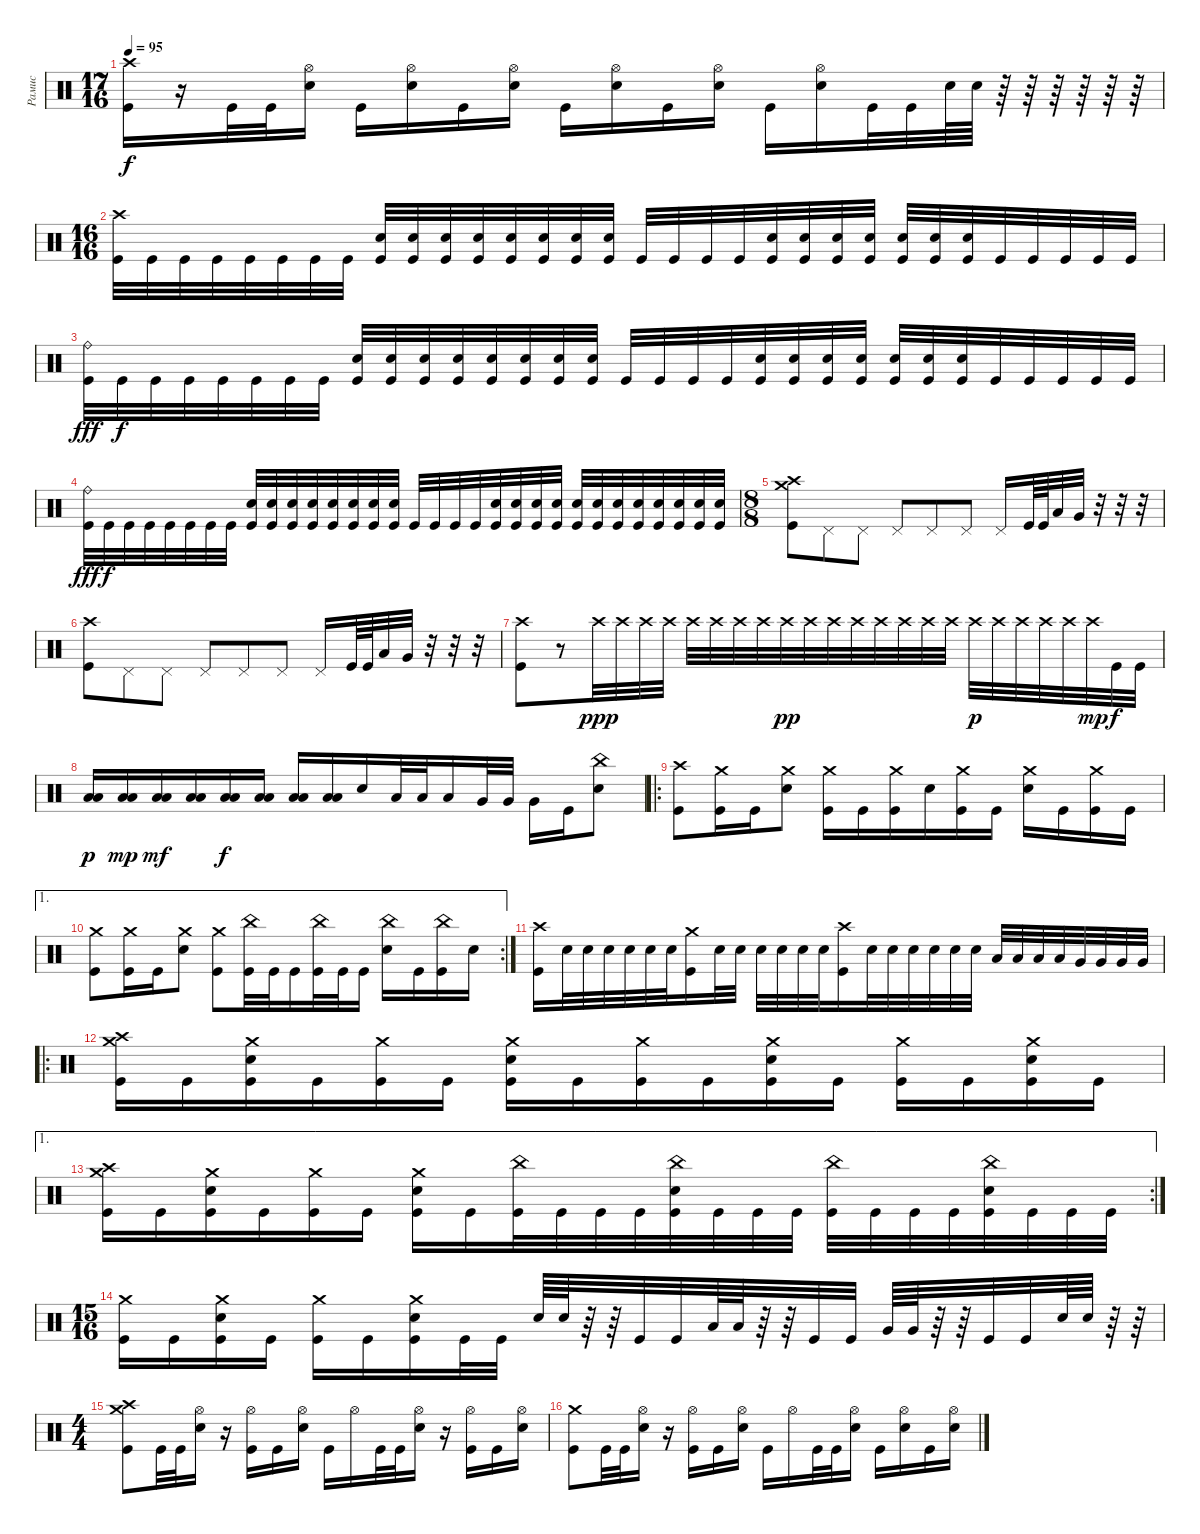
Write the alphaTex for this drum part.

\track ("Рамис" "Рамис") {instrument percussion}
\staff {score}
\articulation defaults
\ts (17 16)
\tempo 95
\clef neutral
\ks c
("Crash high (hit)" "Kick (hit)").16{dy f} r.16 "Kick (hit)".32 "Kick (hit)".32 ("Hi-Hat (open)" "Electric Snare (hit)").16 "Kick (hit)".16 ("Hi-Hat (open)" "Electric Snare (hit)").16 "Kick (hit)".16 ("Hi-Hat (open)" "Electric Snare (hit)").16 "Kick (hit)".16 ("Hi-Hat (open)" "Electric Snare (hit)").16 "Kick (hit)".16 ("Hi-Hat (open)" "Electric Snare (hit)").16 "Kick (hit)".16 ("Hi-Hat (open)" "Electric Snare (hit)").16 "Kick (hit)".32 "Kick (hit)".32 "Electric Snare (hit)".64 "Electric Snare (hit)".64 r.64 r.64 r.64 r.64 r.64 r.64 |
\ts (16 16)
("Crash high (hit)" "Kick (hit)").32 "Kick (hit)".32 "Kick (hit)".32 "Kick (hit)".32 "Kick (hit)".32 "Kick (hit)".32 "Kick (hit)".32 "Kick (hit)".32 ("Electric Snare (hit)" "Kick (hit)").32 ("Electric Snare (hit)" "Kick (hit)").32 ("Electric Snare (hit)" "Kick (hit)").32 ("Electric Snare (hit)" "Kick (hit)").32 ("Electric Snare (hit)" "Kick (hit)").32 ("Electric Snare (hit)" "Kick (hit)").32 ("Electric Snare (hit)" "Kick (hit)").32 ("Electric Snare (hit)" "Kick (hit)").32 "Kick (hit)".32 "Kick (hit)".32 "Kick (hit)".32 "Kick (hit)".32 ("Electric Snare (hit)" "Kick (hit)").32 ("Electric Snare (hit)" "Kick (hit)").32 ("Electric Snare (hit)" "Kick (hit)").32 ("Electric Snare (hit)" "Kick (hit)").32 ("Electric Snare (hit)" "Kick (hit)").32 ("Electric Snare (hit)" "Kick (hit)").32 ("Electric Snare (hit)" "Kick (hit)").32 "Kick (hit)".32 "Kick (hit)".32 "Kick (hit)".32 "Kick (hit)".32 "Kick (hit)".32 |
("Ride (bell)" "Kick (hit)").32{dy fff} "Kick (hit)".32{dy f} "Kick (hit)".32 "Kick (hit)".32 "Kick (hit)".32 "Kick (hit)".32 "Kick (hit)".32 "Kick (hit)".32 ("Electric Snare (hit)" "Kick (hit)").32 ("Electric Snare (hit)" "Kick (hit)").32 ("Electric Snare (hit)" "Kick (hit)").32 ("Electric Snare (hit)" "Kick (hit)").32 ("Electric Snare (hit)" "Kick (hit)").32 ("Electric Snare (hit)" "Kick (hit)").32 ("Electric Snare (hit)" "Kick (hit)").32 ("Electric Snare (hit)" "Kick (hit)").32 "Kick (hit)".32 "Kick (hit)".32 "Kick (hit)".32 "Kick (hit)".32 ("Electric Snare (hit)" "Kick (hit)").32 ("Electric Snare (hit)" "Kick (hit)").32 ("Electric Snare (hit)" "Kick (hit)").32 ("Electric Snare (hit)" "Kick (hit)").32 ("Electric Snare (hit)" "Kick (hit)").32 ("Electric Snare (hit)" "Kick (hit)").32 ("Electric Snare (hit)" "Kick (hit)").32 "Kick (hit)".32 "Kick (hit)".32 "Kick (hit)".32 "Kick (hit)".32 "Kick (hit)".32 |
("Ride (bell)" "Kick (hit)").32{dy fff} "Kick (hit)".32{dy f} "Kick (hit)".32 "Kick (hit)".32 "Kick (hit)".32 "Kick (hit)".32 "Kick (hit)".32 "Kick (hit)".32 ("Electric Snare (hit)" "Kick (hit)").32 ("Electric Snare (hit)" "Kick (hit)").32 ("Electric Snare (hit)" "Kick (hit)").32 ("Electric Snare (hit)" "Kick (hit)").32 ("Electric Snare (hit)" "Kick (hit)").32 ("Electric Snare (hit)" "Kick (hit)").32 ("Electric Snare (hit)" "Kick (hit)").32 ("Electric Snare (hit)" "Kick (hit)").32 "Kick (hit)".32 "Kick (hit)".32 "Kick (hit)".32 "Kick (hit)".32 ("Electric Snare (hit)" "Kick (hit)").32 ("Electric Snare (hit)" "Kick (hit)").32 ("Electric Snare (hit)" "Kick (hit)").32 ("Electric Snare (hit)" "Kick (hit)").32 ("Electric Snare (hit)" "Kick (hit)").32 ("Electric Snare (hit)" "Kick (hit)").32 ("Electric Snare (hit)" "Kick (hit)").32 ("Electric Snare (hit)" "Kick (hit)").32 ("Electric Snare (hit)" "Kick (hit)").32 ("Electric Snare (hit)" "Kick (hit)").32 ("Electric Snare (hit)" "Kick (hit)").32 ("Electric Snare (hit)" "Kick (hit)").32 |
\ts (8 8)
("Crash high (hit)" "Crash medium (hit)" "Kick (hit)").8 "Pedal Hi-Hat (hit)".8 "Pedal Hi-Hat (hit)".8 "Pedal Hi-Hat (hit)".8 "Pedal Hi-Hat (hit)".8 "Pedal Hi-Hat (hit)".8 "Pedal Hi-Hat (hit)".16 "Kick (hit)".64 "Kick (hit)".64 "Low Tom (hit)".32 "Very Low Tom (hit)".32 r.32 r.32 r.32 |
("Crash high (hit)" "Kick (hit)").8 "Pedal Hi-Hat (hit)".8 "Pedal Hi-Hat (hit)".8 "Pedal Hi-Hat (hit)".8 "Pedal Hi-Hat (hit)".8 "Pedal Hi-Hat (hit)".8 "Pedal Hi-Hat (hit)".16 "Kick (hit)".64 "Kick (hit)".64 "Low Tom (hit)".32 "Very Low Tom (hit)".32 r.32 r.32 r.32 |
("Crash high (hit)" "Kick (hit)").8 r.8 "Crash high (hit)".32{dy ppp} "Crash high (hit)".32 "Crash high (hit)".32 "Crash high (hit)".32 "Crash high (hit)".32 "Crash high (hit)".32 "Crash high (hit)".32 "Crash high (hit)".32 "Crash high (hit)".32{dy pp} "Crash high (hit)".32 "Crash high (hit)".32 "Crash high (hit)".32 "Crash high (hit)".32 "Crash high (hit)".32 "Crash high (hit)".32 "Crash high (hit)".32 "Crash high (hit)".32{dy p} "Crash high (hit)".32 "Crash high (hit)".32 "Crash high (hit)".32 "Crash high (hit)".32 "Crash high (hit)".32{dy mp} "Kick (hit)".32{dy f} "Kick (hit)".32 |
("Low Tom (hit)" "Low Floor Tom (hit)").16{dy p} ("Low Tom (hit)" "Low Floor Tom (hit)").16{dy mp} ("Low Tom (hit)" "Low Floor Tom (hit)").16{dy mf} ("Low Tom (hit)" "Low Floor Tom (hit)").16 ("Low Tom (hit)" "Low Floor Tom (hit)").16{dy f} ("Low Tom (hit)" "Low Floor Tom (hit)").16 ("Low Tom (hit)" "Low Floor Tom (hit)").16 ("Low Tom (hit)" "Low Floor Tom (hit)").16 "Electric Snare (hit)".16 "Low Tom (hit)".32 "Low Tom (hit)".32 "Low Tom (hit)".16 "Very Low Tom (hit)".32 "Very Low Tom (hit)".32 "Very Low Tom (hit)".16 "Kick (hit)".16 ("China (hit)" "Electric Snare (hit)").8 |
\ro
("Crash high (hit)" "Kick (hit)").8 ("Crash medium (hit)" "Kick (hit)").16 "Kick (hit)".16 ("Crash medium (hit)" "Electric Snare (hit)").8 ("Crash medium (hit)" "Kick (hit)").16 "Kick (hit)".16 ("Crash medium (hit)" "Kick (hit)").16 "Electric Snare (hit)".16 ("Crash medium (hit)" "Kick (hit)").16 "Kick (hit)".16 ("Crash medium (hit)" "Electric Snare (hit)").16 "Kick (hit)".16 ("Crash medium (hit)" "Kick (hit)").16 "Kick (hit)".16 |
\ae 1
\rc 2
("Crash medium (hit)" "Kick (hit)").8 ("Crash medium (hit)" "Kick (hit)").16 "Kick (hit)".16 ("Crash medium (hit)" "Electric Snare (hit)").8 ("Crash medium (hit)" "Kick (hit)").8 ("China (hit)" "Kick (hit)").32 "Kick (hit)".32 "Kick (hit)".16 ("China (hit)" "Kick (hit)").32 "Kick (hit)".32 "Kick (hit)".16 ("China (hit)" "Electric Snare (hit)").16 "Kick (hit)".16 ("China (hit)" "Kick (hit)").16 "Electric Snare (hit)".16 |
("Crash high (hit)" "Kick (hit)").16 "Electric Snare (hit)".32 "Electric Snare (hit)".32 "Electric Snare (hit)".32 "Electric Snare (hit)".32 "Electric Snare (hit)".32 "Electric Snare (hit)".32 ("Crash medium (hit)" "Kick (hit)").16 "Electric Snare (hit)".32 "Electric Snare (hit)".32 "Electric Snare (hit)".32 "Electric Snare (hit)".32 "Electric Snare (hit)".32 "Electric Snare (hit)".32 ("Crash high (hit)" "Kick (hit)").16 "Electric Snare (hit)".32 "Electric Snare (hit)".32 "Electric Snare (hit)".32 "Electric Snare (hit)".32 "Electric Snare (hit)".32 "Electric Snare (hit)".32 "Low Tom (hit)".32 "Low Tom (hit)".32 "Low Tom (hit)".32 "Low Tom (hit)".32 "Very Low Tom (hit)".32 "Very Low Tom (hit)".32 "Very Low Tom (hit)".32 "Very Low Tom (hit)".32 |
\ro
("Crash medium (hit)" "Crash high (hit)" "Kick (hit)").16 "Kick (hit)".16 ("Crash medium (hit)" "Electric Snare (hit)" "Kick (hit)").16 "Kick (hit)".16 ("Crash medium (hit)" "Kick (hit)").16 "Kick (hit)".16 ("Crash medium (hit)" "Electric Snare (hit)" "Kick (hit)").16 "Kick (hit)".16 ("Crash medium (hit)" "Kick (hit)").16 "Kick (hit)".16 ("Crash medium (hit)" "Electric Snare (hit)" "Kick (hit)").16 "Kick (hit)".16 ("Crash medium (hit)" "Kick (hit)").16 "Kick (hit)".16 ("Crash medium (hit)" "Electric Snare (hit)" "Kick (hit)").16 "Kick (hit)".16 |
\ae 1
\rc 2
("Crash medium (hit)" "Crash high (hit)" "Kick (hit)").16 "Kick (hit)".16 ("Crash medium (hit)" "Electric Snare (hit)" "Kick (hit)").16 "Kick (hit)".16 ("Crash medium (hit)" "Kick (hit)").16 "Kick (hit)".16 ("Crash medium (hit)" "Electric Snare (hit)" "Kick (hit)").16 "Kick (hit)".16 ("China (hit)" "Kick (hit)").32 "Kick (hit)".32 "Kick (hit)".32 "Kick (hit)".32 ("China (hit)" "Electric Snare (hit)" "Kick (hit)").32 "Kick (hit)".32 "Kick (hit)".32 "Kick (hit)".32 ("China (hit)" "Kick (hit)").32 "Kick (hit)".32 "Kick (hit)".32 "Kick (hit)".32 ("China (hit)" "Electric Snare (hit)" "Kick (hit)").32 "Kick (hit)".32 "Kick (hit)".32 "Kick (hit)".32 |
\ts (15 16)
("Crash medium (hit)" "Kick (hit)").16 "Kick (hit)".16 ("Crash medium (hit)" "Electric Snare (hit)" "Kick (hit)").16 "Kick (hit)".16 ("Crash medium (hit)" "Kick (hit)").16 "Kick (hit)".16 ("Crash medium (hit)" "Electric Snare (hit)" "Kick (hit)").16 "Kick (hit)".32 "Kick (hit)".32 "Electric Snare (hit)".64 "Electric Snare (hit)".64 r.64 r.64 "Kick (hit)".32 "Kick (hit)".32 "Low Tom (hit)".64 "Low Tom (hit)".64 r.64 r.64 "Kick (hit)".32 "Kick (hit)".32 "Very Low Tom (hit)".64 "Very Low Tom (hit)".64 r.64 r.64 "Kick (hit)".32 "Kick (hit)".32 "Electric Snare (hit)".64 "Electric Snare (hit)".64 r.64 r.64 |
\ts (4 4)
("Crash medium (hit)" "Crash high (hit)" "Kick (hit)").8 "Kick (hit)".32 "Kick (hit)".32 ("Hi-Hat (open)" "Electric Snare (hit)").16 r.16 ("Hi-Hat (open)" "Kick (hit)").16 "Kick (hit)".16 ("Hi-Hat (open)" "Electric Snare (hit)").16 "Kick (hit)".16 "Hi-Hat (open)".16 "Kick (hit)".32 "Kick (hit)".32 ("Hi-Hat (open)" "Electric Snare (hit)").16 r.16 ("Hi-Hat (open)" "Kick (hit)").16 "Kick (hit)".16 ("Hi-Hat (open)" "Electric Snare (hit)").16 |
("Crash medium (hit)" "Kick (hit)").8 "Kick (hit)".32 "Kick (hit)".32 ("Hi-Hat (open)" "Electric Snare (hit)").16 r.16 ("Hi-Hat (open)" "Kick (hit)").16 "Kick (hit)".16 ("Hi-Hat (open)" "Electric Snare (hit)").16 "Kick (hit)".16 "Hi-Hat (open)".16 "Kick (hit)".32 "Kick (hit)".32 ("Hi-Hat (open)" "Electric Snare (hit)").16 "Kick (hit)".16 ("Hi-Hat (open)" "Electric Snare (hit)").16 "Kick (hit)".16 ("Hi-Hat (open)" "Electric Snare (hit)").16
